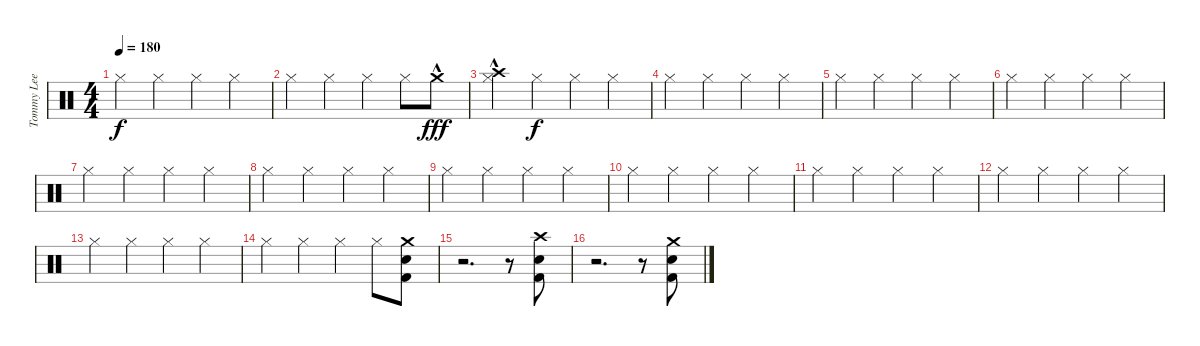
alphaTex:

\track ("Tommy Lee" "Tommy Lee") {instrument percussion}
\staff {score}
\articulation defaults
\ts (4 4)
\tempo 180
\clef neutral
\ks c "Hi-Hat (closed)".4{dy f} "Hi-Hat (closed)".4 "Hi-Hat (closed)".4 "Hi-Hat (closed)".4
|
"Hi-Hat (closed)".4 "Hi-Hat (closed)".4 "Hi-Hat (closed)".4 "Hi-Hat (closed)".8 "Crash medium (hit)"{hac}.8{dy fff} |
("Crash high (hit)"{hac} "Hi-Hat (closed)").4 "Hi-Hat (closed)".4{dy f} "Hi-Hat (closed)".4 "Hi-Hat (closed)".4 |
"Hi-Hat (closed)".4 "Hi-Hat (closed)".4 "Hi-Hat (closed)".4 "Hi-Hat (closed)".4 |
"Hi-Hat (closed)".4 "Hi-Hat (closed)".4 "Hi-Hat (closed)".4 "Hi-Hat (closed)".4 |
"Hi-Hat (closed)".4 "Hi-Hat (closed)".4 "Hi-Hat (closed)".4 "Hi-Hat (closed)".4 |
"Hi-Hat (closed)".4 "Hi-Hat (closed)".4 "Hi-Hat (closed)".4 "Hi-Hat (closed)".4 |
"Hi-Hat (closed)".4 "Hi-Hat (closed)".4 "Hi-Hat (closed)".4 "Hi-Hat (closed)".4 |
"Hi-Hat (closed)".4 "Hi-Hat (closed)".4 "Hi-Hat (closed)".4 "Hi-Hat (closed)".4 |
"Hi-Hat (closed)".4 "Hi-Hat (closed)".4 "Hi-Hat (closed)".4 "Hi-Hat (closed)".4 |
"Hi-Hat (closed)".4 "Hi-Hat (closed)".4 "Hi-Hat (closed)".4 "Hi-Hat (closed)".4 |
"Hi-Hat (closed)".4 "Hi-Hat (closed)".4 "Hi-Hat (closed)".4 "Hi-Hat (closed)".4 |
"Hi-Hat (closed)".4 "Hi-Hat (closed)".4 "Hi-Hat (closed)".4 "Hi-Hat (closed)".4 |
"Hi-Hat (closed)".4 "Hi-Hat (closed)".4 "Hi-Hat (closed)".4 "Hi-Hat (closed)".8 ("Crash medium (hit)" "Electric Snare (hit)" "Kick (hit) 2").8 |
r.2{d volume 0} r.8 ("Crash high (hit)" "Electric Snare (hit)" "Kick (hit) 2").8{volume 16} |
r.2{d volume 0} r.8 ("Crash medium (hit)" "Electric Snare (hit)" "Kick (hit) 2").8{volume 16}
